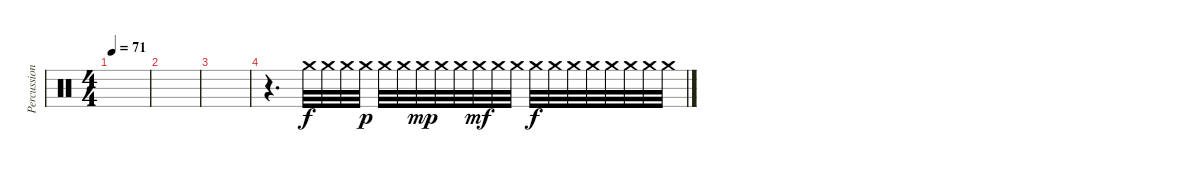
\track ("Percussion" "Percussion") {instrument percussion}
\staff {score}
\articulation defaults
\ts (4 4)
\tempo 71
\clef neutral
\ks c
|
|
|
r.4{d} "Crash medium (hit)".32 "Crash medium (hit)".32 "Crash medium (hit)".32 "Crash medium (hit)".32{dy p} "Crash medium (hit)".32 "Crash medium (hit)".32 "Crash medium (hit)".32{dy mp} "Crash medium (hit)".32 "Crash medium (hit)".32 "Crash medium (hit)".32{dy mf} "Crash medium (hit)".32 "Crash medium (hit)".32 "Crash medium (hit)".32{dy f} "Crash medium (hit)".32 "Crash medium (hit)".32 "Crash medium (hit)".32 "Crash medium (hit)".32 "Crash medium (hit)".32 "Crash medium (hit)".32 "Crash medium (hit)".32
